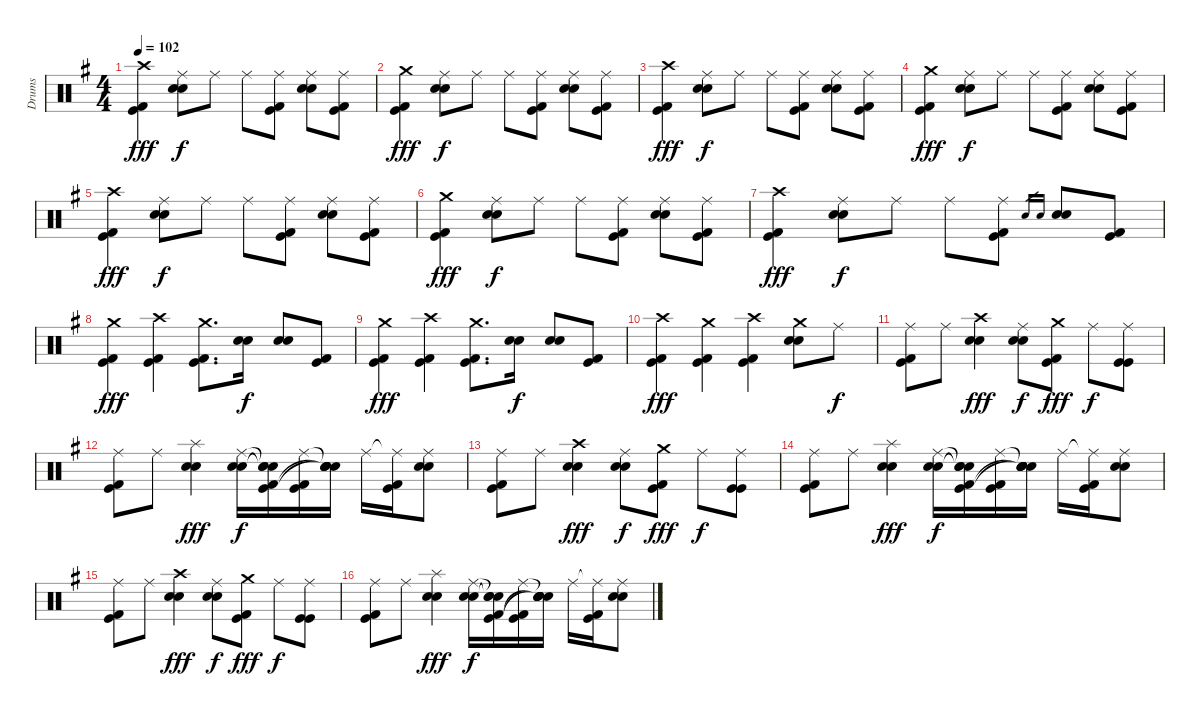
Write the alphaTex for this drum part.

\track ("Drums" "Drums") {instrument percussion}
\staff {score}
\articulation defaults
\ts (4 4)
\tempo 102
\clef neutral
\ks g
("Crash high (hit)" "Kick (hit)" "Kick (hit) 2").4{dy fff} ("Ride (middle)" "Electric Snare (hit)" "Snare (hit) 2").8{dy f} "Ride (middle)".8 "Ride (middle)".8 ("Ride (middle)" "Kick (hit)" "Kick (hit) 2").8 ("Ride (middle)" "Electric Snare (hit)" "Snare (hit) 2").8 ("Ride (middle)" "Kick (hit)" "Kick (hit) 2").8 |
("Crash medium (hit)" "Kick (hit)" "Kick (hit) 2").4{dy fff} ("Ride (middle)" "Electric Snare (hit)" "Snare (hit) 2").8{dy f} "Ride (middle)".8 "Ride (middle)".8 ("Ride (middle)" "Kick (hit)" "Kick (hit) 2").8 ("Ride (middle)" "Electric Snare (hit)" "Snare (hit) 2").8 ("Ride (middle)" "Kick (hit)" "Kick (hit) 2").8 |
("Crash high (hit)" "Kick (hit)" "Kick (hit) 2").4{dy fff} ("Ride (middle)" "Electric Snare (hit)" "Snare (hit) 2").8{dy f} "Ride (middle)".8 "Ride (middle)".8 ("Ride (middle)" "Kick (hit)" "Kick (hit) 2").8 ("Ride (middle)" "Electric Snare (hit)" "Snare (hit) 2").8 ("Ride (middle)" "Kick (hit)" "Kick (hit) 2").8 |
("Crash medium (hit)" "Kick (hit)" "Kick (hit) 2").4{dy fff} ("Ride (middle)" "Electric Snare (hit)" "Snare (hit) 2").8{dy f} "Ride (middle)".8 "Ride (middle)".8 ("Ride (middle)" "Kick (hit)" "Kick (hit) 2").8 ("Ride (middle)" "Electric Snare (hit)" "Snare (hit) 2").8 ("Ride (middle)" "Kick (hit)" "Kick (hit) 2").8 |
("Crash high (hit)" "Kick (hit)" "Kick (hit) 2").4{dy fff} ("Ride (middle)" "Electric Snare (hit)" "Snare (hit) 2").8{dy f} "Ride (middle)".8 "Ride (middle)".8 ("Ride (middle)" "Kick (hit)" "Kick (hit) 2").8 ("Ride (middle)" "Electric Snare (hit)" "Snare (hit) 2").8 ("Ride (middle)" "Kick (hit)" "Kick (hit) 2").8 |
("Crash medium (hit)" "Kick (hit)" "Kick (hit) 2").4{dy fff} ("Ride (middle)" "Electric Snare (hit)" "Snare (hit) 2").8{dy f} "Ride (middle)".8 "Ride (middle)".8 ("Ride (middle)" "Kick (hit)" "Kick (hit) 2").8 ("Ride (middle)" "Electric Snare (hit)" "Snare (hit) 2").8 ("Ride (middle)" "Kick (hit)" "Kick (hit) 2").8 |
("Crash high (hit)" "Kick (hit)" "Kick (hit) 2").4{dy fff} ("Ride (middle)" "Electric Snare (hit)" "Snare (hit) 2").8{dy f} "Ride (middle)".8 "Ride (middle)".8 ("Ride (middle)" "Kick (hit)" "Kick (hit) 2").8 "Electric Snare (hit)".16{gr} "Snare (hit) 2".16{gr} ("Electric Snare (hit)" "Snare (hit) 2").8 ("Kick (hit)" "Kick (hit) 2").8 |
("Crash medium (hit)" "Kick (hit)" "Kick (hit) 2").4{dy fff} ("Crash high (hit)" "Kick (hit)" "Kick (hit) 2").4 ("Crash medium (hit)" "Kick (hit)" "Kick (hit) 2").8{d} ("Electric Snare (hit)" "Snare (hit) 2").16{dy f} ("Electric Snare (hit)" "Snare (hit) 2").8 ("Kick (hit)" "Kick (hit) 2").8 |
("Crash medium (hit)" "Kick (hit)" "Kick (hit) 2").4{dy fff} ("Crash high (hit)" "Kick (hit)" "Kick (hit) 2").4 ("Crash medium (hit)" "Kick (hit)" "Kick (hit) 2").8{d} ("Electric Snare (hit)" "Snare (hit) 2").16{dy f} ("Electric Snare (hit)" "Snare (hit) 2").8 ("Kick (hit)" "Kick (hit) 2").8 |
("Crash high (hit)" "Kick (hit)" "Kick (hit) 2").4{dy fff} ("Crash medium (hit)" "Kick (hit)" "Kick (hit) 2").4 ("Crash high (hit)" "Kick (hit)" "Kick (hit) 2").4 ("Crash medium (hit)" "Electric Snare (hit)" "Snare (hit) 2").8 "Ride (middle)".8{dy f} |
("Ride (middle)" "Kick (hit)" "Kick (hit) 2").8 "Ride (middle)".8 ("Crash high (hit)" "Electric Snare (hit)" "Snare (hit) 2").4{dy fff} ("Ride (middle)" "Electric Snare (hit)" "Snare (hit) 2").8{dy f} ("Crash medium (hit)" "Kick (hit)" "Kick (hit) 2").8{dy fff} "Ride (middle)".8{dy f} ("Ride (middle)" "Kick (hit)" "Kick (hit)").8 |
("Ride (middle)" "Kick (hit)" "Kick (hit) 2").8 "Ride (middle)".8 ("Splash (hit)" "Electric Snare (hit)" "Snare (hit) 2").4{dy fff} ("Ride (middle)" "Electric Snare (hit)" "Snare (hit) 2").16{dy f} ("Snare (hit)"{t} "Snare (hit)"{t} "Snare (hit)"{t} "Kick (hit)" "Kick (hit) 2").16 ("Ride (middle)" "Kick (hit)" "Kick (hit) 2").16 ("Snare (hit)"{t} "Electric Snare (hit)" "Snare (hit) 2" "Snare (hit)"{t} "Snare (hit)"{t}).16 "Ride (middle)".16 ("Ride (middle)"{t} "Kick (hit)" "Kick (hit) 2").16 ("Ride (middle)" "Electric Snare (hit)" "Snare (hit) 2").8 |
("Ride (middle)" "Kick (hit)" "Kick (hit) 2").8 "Ride (middle)".8 ("Crash high (hit)" "Electric Snare (hit)" "Snare (hit) 2").4{dy fff} ("Ride (middle)" "Electric Snare (hit)" "Snare (hit) 2").8{dy f} ("Crash medium (hit)" "Kick (hit)" "Kick (hit) 2").8{dy fff} "Ride (middle)".8{dy f} ("Ride (middle)" "Kick (hit)" "Kick (hit)").8 |
("Ride (middle)" "Kick (hit)" "Kick (hit) 2").8 "Ride (middle)".8 ("Splash (hit)" "Electric Snare (hit)" "Snare (hit) 2").4{dy fff} ("Ride (middle)" "Electric Snare (hit)" "Snare (hit) 2").16{dy f} ("Snare (hit)"{t} "Snare (hit)"{t} "Snare (hit)"{t} "Kick (hit)" "Kick (hit) 2").16 ("Ride (middle)" "Kick (hit)" "Kick (hit) 2").16 ("Snare (hit)"{t} "Electric Snare (hit)" "Snare (hit) 2" "Snare (hit)"{t} "Snare (hit)"{t}).16 "Ride (middle)".16 ("Ride (middle)"{t} "Kick (hit)" "Kick (hit) 2").16 ("Ride (middle)" "Electric Snare (hit)" "Snare (hit) 2").8 |
("Ride (middle)" "Kick (hit)" "Kick (hit) 2").8 "Ride (middle)".8 ("Crash high (hit)" "Electric Snare (hit)" "Snare (hit) 2").4{dy fff} ("Ride (middle)" "Electric Snare (hit)" "Snare (hit) 2").8{dy f} ("Crash medium (hit)" "Kick (hit)" "Kick (hit) 2").8{dy fff} "Ride (middle)".8{dy f} ("Ride (middle)" "Kick (hit)" "Kick (hit)").8 |
("Ride (middle)" "Kick (hit)" "Kick (hit) 2").8 "Ride (middle)".8 ("Splash (hit)" "Electric Snare (hit)" "Snare (hit) 2").4{dy fff} ("Ride (middle)" "Electric Snare (hit)" "Snare (hit) 2").16{dy f} ("Snare (hit)"{t} "Snare (hit)"{t} "Snare (hit)"{t} "Kick (hit)" "Kick (hit) 2").16 ("Ride (middle)" "Kick (hit)" "Kick (hit) 2").16 ("Snare (hit)"{t} "Electric Snare (hit)" "Snare (hit) 2" "Snare (hit)"{t} "Snare (hit)"{t}).16 "Ride (middle)".16 ("Ride (middle)"{t} "Kick (hit)" "Kick (hit) 2").16 ("Ride (middle)" "Electric Snare (hit)" "Snare (hit) 2").8
